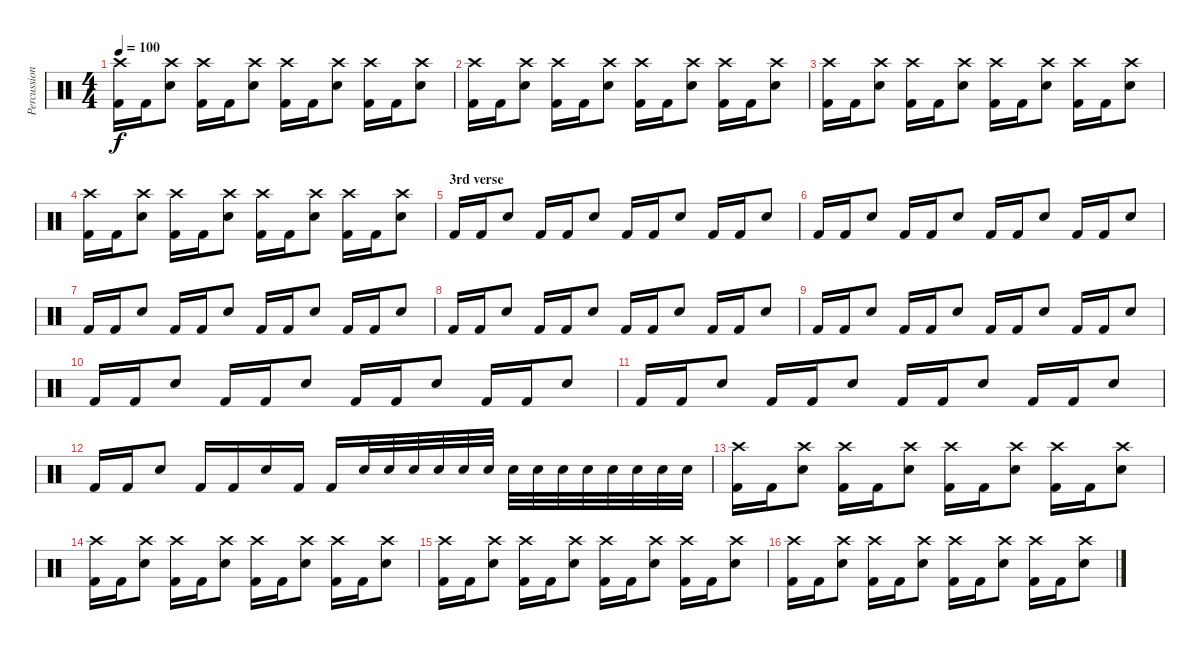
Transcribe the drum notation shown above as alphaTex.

\track ("Percussion" "Percussion") {instrument percussion}
\staff {score}
\articulation defaults
\ts (4 4)
\tempo 100
\clef neutral
\ks c
("Crash high (hit)" "Kick (hit) 2").16{dy f} "Kick (hit) 2".16 ("Crash high (hit)" "Electric Snare (hit)").8 ("Crash high (hit)" "Kick (hit) 2").16 "Kick (hit) 2".16 ("Crash high (hit)" "Electric Snare (hit)").8 ("Crash high (hit)" "Kick (hit) 2").16 "Kick (hit) 2".16 ("Crash high (hit)" "Electric Snare (hit)").8 ("Crash high (hit)" "Kick (hit) 2").16 "Kick (hit) 2".16 ("Crash high (hit)" "Electric Snare (hit)").8 |
("Crash high (hit)" "Kick (hit) 2").16 "Kick (hit) 2".16 ("Crash high (hit)" "Electric Snare (hit)").8 ("Crash high (hit)" "Kick (hit) 2").16 "Kick (hit) 2".16 ("Crash high (hit)" "Electric Snare (hit)").8 ("Crash high (hit)" "Kick (hit) 2").16 "Kick (hit) 2".16 ("Crash high (hit)" "Electric Snare (hit)").8 ("Crash high (hit)" "Kick (hit) 2").16 "Kick (hit) 2".16 ("Crash high (hit)" "Electric Snare (hit)").8 |
("Crash high (hit)" "Kick (hit) 2").16 "Kick (hit) 2".16 ("Crash high (hit)" "Electric Snare (hit)").8 ("Crash high (hit)" "Kick (hit) 2").16 "Kick (hit) 2".16 ("Crash high (hit)" "Electric Snare (hit)").8 ("Crash high (hit)" "Kick (hit) 2").16 "Kick (hit) 2".16 ("Crash high (hit)" "Electric Snare (hit)").8 ("Crash high (hit)" "Kick (hit) 2").16 "Kick (hit) 2".16 ("Crash high (hit)" "Electric Snare (hit)").8 |
("Crash high (hit)" "Kick (hit) 2").16 "Kick (hit) 2".16 ("Crash high (hit)" "Electric Snare (hit)").8 ("Crash high (hit)" "Kick (hit) 2").16 "Kick (hit) 2".16 ("Crash high (hit)" "Electric Snare (hit)").8 ("Crash high (hit)" "Kick (hit) 2").16 "Kick (hit) 2".16 ("Crash high (hit)" "Electric Snare (hit)").8 ("Crash high (hit)" "Kick (hit) 2").16 "Kick (hit) 2".16 ("Crash high (hit)" "Electric Snare (hit)").8 |
\section ("" "3rd verse")
"Kick (hit) 2".16 "Kick (hit) 2".16 "Electric Snare (hit)".8 "Kick (hit) 2".16 "Kick (hit) 2".16 "Electric Snare (hit)".8 "Kick (hit) 2".16 "Kick (hit) 2".16 "Electric Snare (hit)".8 "Kick (hit) 2".16 "Kick (hit) 2".16 "Electric Snare (hit)".8 |
"Kick (hit) 2".16 "Kick (hit) 2".16 "Electric Snare (hit)".8 "Kick (hit) 2".16 "Kick (hit) 2".16 "Electric Snare (hit)".8 "Kick (hit) 2".16 "Kick (hit) 2".16 "Electric Snare (hit)".8 "Kick (hit) 2".16 "Kick (hit) 2".16 "Electric Snare (hit)".8 |
"Kick (hit) 2".16 "Kick (hit) 2".16 "Electric Snare (hit)".8 "Kick (hit) 2".16 "Kick (hit) 2".16 "Electric Snare (hit)".8 "Kick (hit) 2".16 "Kick (hit) 2".16 "Electric Snare (hit)".8 "Kick (hit) 2".16 "Kick (hit) 2".16 "Electric Snare (hit)".8 |
"Kick (hit) 2".16 "Kick (hit) 2".16 "Electric Snare (hit)".8 "Kick (hit) 2".16 "Kick (hit) 2".16 "Electric Snare (hit)".8 "Kick (hit) 2".16 "Kick (hit) 2".16 "Electric Snare (hit)".8 "Kick (hit) 2".16 "Kick (hit) 2".16 "Electric Snare (hit)".8 |
"Kick (hit) 2".16 "Kick (hit) 2".16 "Electric Snare (hit)".8 "Kick (hit) 2".16 "Kick (hit) 2".16 "Electric Snare (hit)".8 "Kick (hit) 2".16 "Kick (hit) 2".16 "Electric Snare (hit)".8 "Kick (hit) 2".16 "Kick (hit) 2".16 "Electric Snare (hit)".8 |
"Kick (hit) 2".16 "Kick (hit) 2".16 "Electric Snare (hit)".8 "Kick (hit) 2".16 "Kick (hit) 2".16 "Electric Snare (hit)".8 "Kick (hit) 2".16 "Kick (hit) 2".16 "Electric Snare (hit)".8 "Kick (hit) 2".16 "Kick (hit) 2".16 "Electric Snare (hit)".8 |
"Kick (hit) 2".16 "Kick (hit) 2".16 "Electric Snare (hit)".8 "Kick (hit) 2".16 "Kick (hit) 2".16 "Electric Snare (hit)".8 "Kick (hit) 2".16 "Kick (hit) 2".16 "Electric Snare (hit)".8 "Kick (hit) 2".16 "Kick (hit) 2".16 "Electric Snare (hit)".8 |
"Kick (hit) 2".16 "Kick (hit) 2".16 "Electric Snare (hit)".8 "Kick (hit) 2".16 "Kick (hit) 2".16 "Electric Snare (hit)".16 "Kick (hit) 2".16 "Kick (hit) 2".16 "Electric Snare (hit)".32 "Electric Snare (hit)".32 "Electric Snare (hit)".32 "Electric Snare (hit)".32 "Electric Snare (hit)".32 "Electric Snare (hit)".32 "Electric Snare (hit)".32 "Electric Snare (hit)".32 "Electric Snare (hit)".32 "Electric Snare (hit)".32 "Electric Snare (hit)".32 "Electric Snare (hit)".32 "Electric Snare (hit)".32 "Electric Snare (hit)".32 |
("Crash high (hit)" "Kick (hit) 2").16 "Kick (hit) 2".16 ("Crash high (hit)" "Electric Snare (hit)").8 ("Crash high (hit)" "Kick (hit) 2").16 "Kick (hit) 2".16 ("Crash high (hit)" "Electric Snare (hit)").8 ("Crash high (hit)" "Kick (hit) 2").16 "Kick (hit) 2".16 ("Crash high (hit)" "Electric Snare (hit)").8 ("Crash high (hit)" "Kick (hit) 2").16 "Kick (hit) 2".16 ("Crash high (hit)" "Electric Snare (hit)").8 |
("Crash high (hit)" "Kick (hit) 2").16 "Kick (hit) 2".16 ("Crash high (hit)" "Electric Snare (hit)").8 ("Crash high (hit)" "Kick (hit) 2").16 "Kick (hit) 2".16 ("Crash high (hit)" "Electric Snare (hit)").8 ("Crash high (hit)" "Kick (hit) 2").16 "Kick (hit) 2".16 ("Crash high (hit)" "Electric Snare (hit)").8 ("Crash high (hit)" "Kick (hit) 2").16 "Kick (hit) 2".16 ("Crash high (hit)" "Electric Snare (hit)").8 |
("Crash high (hit)" "Kick (hit) 2").16 "Kick (hit) 2".16 ("Crash high (hit)" "Electric Snare (hit)").8 ("Crash high (hit)" "Kick (hit) 2").16 "Kick (hit) 2".16 ("Crash high (hit)" "Electric Snare (hit)").8 ("Crash high (hit)" "Kick (hit) 2").16 "Kick (hit) 2".16 ("Crash high (hit)" "Electric Snare (hit)").8 ("Crash high (hit)" "Kick (hit) 2").16 "Kick (hit) 2".16 ("Crash high (hit)" "Electric Snare (hit)").8 |
("Crash high (hit)" "Kick (hit) 2").16 "Kick (hit) 2".16 ("Crash high (hit)" "Electric Snare (hit)").8 ("Crash high (hit)" "Kick (hit) 2").16 "Kick (hit) 2".16 ("Crash high (hit)" "Electric Snare (hit)").8 ("Crash high (hit)" "Kick (hit) 2").16 "Kick (hit) 2".16 ("Crash high (hit)" "Electric Snare (hit)").8 ("Crash high (hit)" "Kick (hit) 2").16 "Kick (hit) 2".16 ("Crash high (hit)" "Electric Snare (hit)").8
